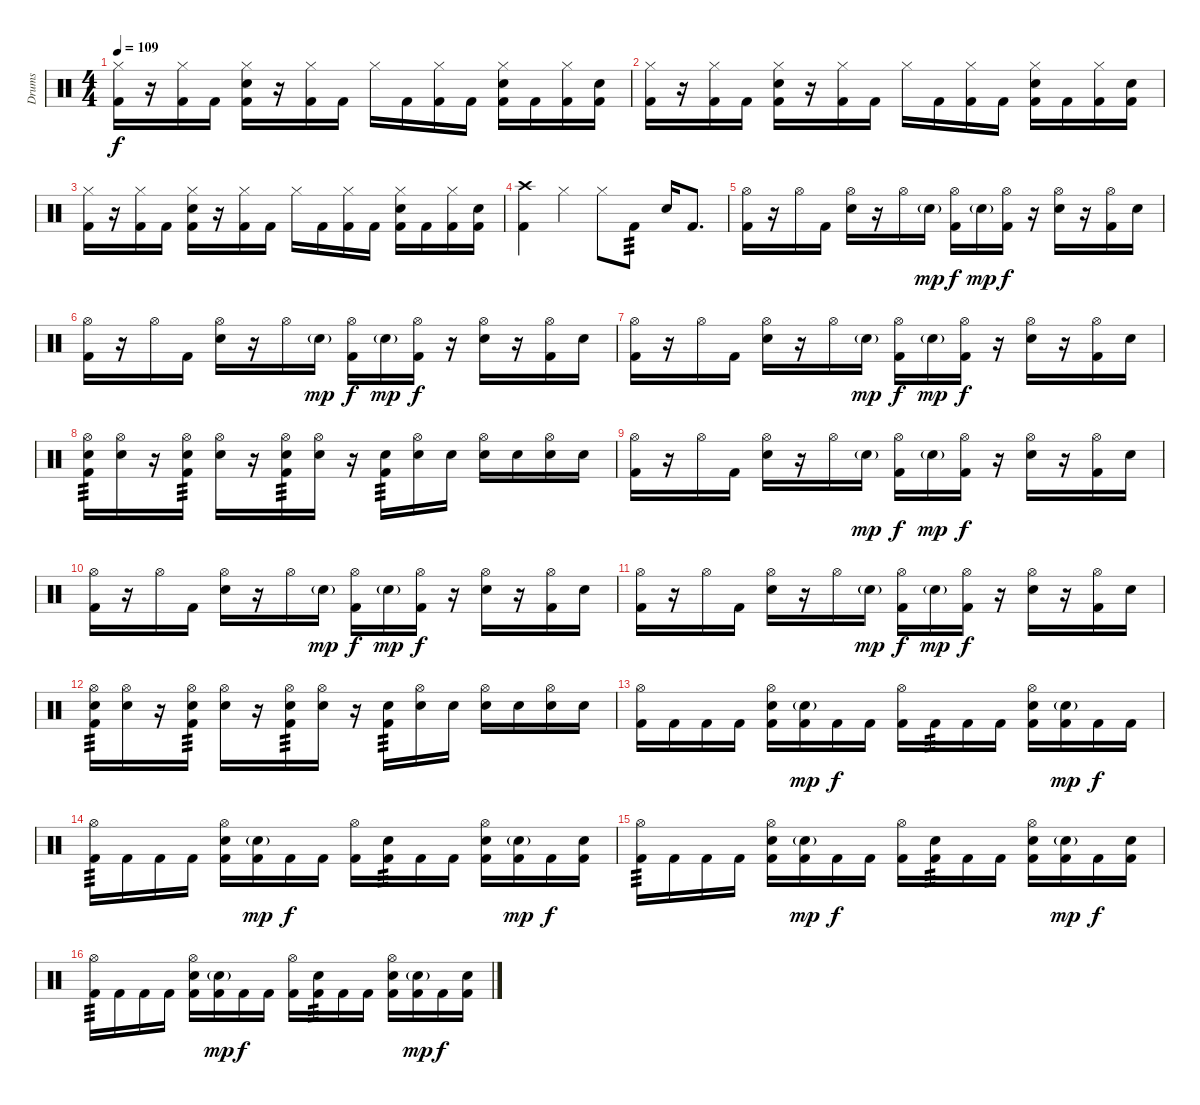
\track ("Drums" "Drums") {instrument percussion}
\staff {score}
\articulation defaults
\ts (4 4)
\tempo 109
\clef neutral
\ks c
("Hi-Hat (closed)" "Kick (hit) 2").16{dy f} r.16 ("Hi-Hat (closed)" "Kick (hit) 2").16 "Kick (hit) 2".16 ("Hi-Hat (closed)" "Electric Snare (hit)" "Kick (hit) 2").16 r.16 ("Hi-Hat (closed)" "Kick (hit) 2").16 "Kick (hit) 2".16 "Hi-Hat (closed)".16 "Kick (hit) 2".16 ("Hi-Hat (closed)" "Kick (hit) 2").16 "Kick (hit) 2".16 ("Hi-Hat (closed)" "Electric Snare (hit)" "Kick (hit) 2").16 "Kick (hit) 2".16 ("Hi-Hat (closed)" "Kick (hit) 2").16 ("Electric Snare (hit)" "Kick (hit) 2").16 |
("Hi-Hat (closed)" "Kick (hit) 2").16 r.16 ("Hi-Hat (closed)" "Kick (hit) 2").16 "Kick (hit) 2".16 ("Hi-Hat (closed)" "Electric Snare (hit)" "Kick (hit) 2").16 r.16 ("Hi-Hat (closed)" "Kick (hit) 2").16 "Kick (hit) 2".16 "Hi-Hat (closed)".16 "Kick (hit) 2".16 ("Hi-Hat (closed)" "Kick (hit) 2").16 "Kick (hit) 2".16 ("Hi-Hat (closed)" "Electric Snare (hit)" "Kick (hit) 2").16 "Kick (hit) 2".16 ("Hi-Hat (closed)" "Kick (hit) 2").16 ("Electric Snare (hit)" "Kick (hit) 2").16 |
("Hi-Hat (closed)" "Kick (hit) 2").16 r.16 ("Hi-Hat (closed)" "Kick (hit) 2").16 "Kick (hit) 2".16 ("Hi-Hat (closed)" "Electric Snare (hit)" "Kick (hit) 2").16 r.16 ("Hi-Hat (closed)" "Kick (hit) 2").16 "Kick (hit) 2".16 "Hi-Hat (closed)".16 "Kick (hit) 2".16 ("Hi-Hat (closed)" "Kick (hit) 2").16 "Kick (hit) 2".16 ("Hi-Hat (closed)" "Electric Snare (hit)" "Kick (hit) 2").16 "Kick (hit) 2".16 ("Hi-Hat (closed)" "Kick (hit) 2").16 ("Electric Snare (hit)" "Kick (hit) 2").16 |
("Crash high (hit)" "Kick (hit) 2").4 "Hi-Hat (closed)".4 "Hi-Hat (closed)".8 "Kick (hit) 2".8{tp 3} "Electric Snare (hit)".16 "Kick (hit) 2".8{d} |
("Hi-Hat (open)" "Kick (hit) 2").16 r.16 "Hi-Hat (open)".16 "Kick (hit) 2".16 ("Hi-Hat (open)" "Electric Snare (hit)").16 r.16 "Hi-Hat (open)".16 "Electric Snare (hit)"{g}.16{dy mp} ("Hi-Hat (open)" "Kick (hit) 2").16{dy f} "Electric Snare (hit)"{g}.16{dy mp} ("Hi-Hat (open)" "Kick (hit) 2").16{dy f} r.16 ("Hi-Hat (open)" "Electric Snare (hit)").16 r.16 ("Hi-Hat (open)" "Kick (hit) 2").16 "Electric Snare (hit)".16 |
("Hi-Hat (open)" "Kick (hit) 2").16 r.16 "Hi-Hat (open)".16 "Kick (hit) 2".16 ("Hi-Hat (open)" "Electric Snare (hit)").16 r.16 "Hi-Hat (open)".16 "Electric Snare (hit)"{g}.16{dy mp} ("Hi-Hat (open)" "Kick (hit) 2").16{dy f} "Electric Snare (hit)"{g}.16{dy mp} ("Hi-Hat (open)" "Kick (hit) 2").16{dy f} r.16 ("Hi-Hat (open)" "Electric Snare (hit)").16 r.16 ("Hi-Hat (open)" "Kick (hit) 2").16 "Electric Snare (hit)".16 |
("Hi-Hat (open)" "Kick (hit) 2").16 r.16 "Hi-Hat (open)".16 "Kick (hit) 2".16 ("Hi-Hat (open)" "Electric Snare (hit)").16 r.16 "Hi-Hat (open)".16 "Electric Snare (hit)"{g}.16{dy mp} ("Hi-Hat (open)" "Kick (hit) 2").16{dy f} "Electric Snare (hit)"{g}.16{dy mp} ("Hi-Hat (open)" "Kick (hit) 2").16{dy f} r.16 ("Hi-Hat (open)" "Electric Snare (hit)").16 r.16 ("Hi-Hat (open)" "Kick (hit) 2").16 "Electric Snare (hit)".16 |
("Hi-Hat (open)" "Electric Snare (hit)" "Kick (hit) 2").16{tp 3} ("Hi-Hat (open)" "Electric Snare (hit)").16 r.16 ("Hi-Hat (open)" "Electric Snare (hit)" "Kick (hit) 2").16{tp 3} ("Hi-Hat (open)" "Electric Snare (hit)").16 r.16 ("Hi-Hat (open)" "Electric Snare (hit)" "Kick (hit) 2").16{tp 3} ("Hi-Hat (open)" "Electric Snare (hit)").16 r.16 ("Electric Snare (hit)" "Kick (hit) 2").16{tp 3} ("Hi-Hat (open)" "Electric Snare (hit)").16 "Electric Snare (hit)".16 ("Hi-Hat (open)" "Electric Snare (hit)").16 "Electric Snare (hit)".16 ("Hi-Hat (open)" "Electric Snare (hit)").16 "Electric Snare (hit)".16 |
("Hi-Hat (open)" "Kick (hit) 2").16 r.16 "Hi-Hat (open)".16 "Kick (hit) 2".16 ("Hi-Hat (open)" "Electric Snare (hit)").16 r.16 "Hi-Hat (open)".16 "Electric Snare (hit)"{g}.16{dy mp} ("Hi-Hat (open)" "Kick (hit) 2").16{dy f} "Electric Snare (hit)"{g}.16{dy mp} ("Hi-Hat (open)" "Kick (hit) 2").16{dy f} r.16 ("Hi-Hat (open)" "Electric Snare (hit)").16 r.16 ("Hi-Hat (open)" "Kick (hit) 2").16 "Electric Snare (hit)".16 |
("Hi-Hat (open)" "Kick (hit) 2").16 r.16 "Hi-Hat (open)".16 "Kick (hit) 2".16 ("Hi-Hat (open)" "Electric Snare (hit)").16 r.16 "Hi-Hat (open)".16 "Electric Snare (hit)"{g}.16{dy mp} ("Hi-Hat (open)" "Kick (hit) 2").16{dy f} "Electric Snare (hit)"{g}.16{dy mp} ("Hi-Hat (open)" "Kick (hit) 2").16{dy f} r.16 ("Hi-Hat (open)" "Electric Snare (hit)").16 r.16 ("Hi-Hat (open)" "Kick (hit) 2").16 "Electric Snare (hit)".16 |
("Hi-Hat (open)" "Kick (hit) 2").16 r.16 "Hi-Hat (open)".16 "Kick (hit) 2".16 ("Hi-Hat (open)" "Electric Snare (hit)").16 r.16 "Hi-Hat (open)".16 "Electric Snare (hit)"{g}.16{dy mp} ("Hi-Hat (open)" "Kick (hit) 2").16{dy f} "Electric Snare (hit)"{g}.16{dy mp} ("Hi-Hat (open)" "Kick (hit) 2").16{dy f} r.16 ("Hi-Hat (open)" "Electric Snare (hit)").16 r.16 ("Hi-Hat (open)" "Kick (hit) 2").16 "Electric Snare (hit)".16 |
("Hi-Hat (open)" "Electric Snare (hit)" "Kick (hit) 2").16{tp 3} ("Hi-Hat (open)" "Electric Snare (hit)").16 r.16 ("Hi-Hat (open)" "Electric Snare (hit)" "Kick (hit) 2").16{tp 3} ("Hi-Hat (open)" "Electric Snare (hit)").16 r.16 ("Hi-Hat (open)" "Electric Snare (hit)" "Kick (hit) 2").16{tp 3} ("Hi-Hat (open)" "Electric Snare (hit)").16 r.16 ("Electric Snare (hit)" "Kick (hit) 2").16{tp 3} ("Hi-Hat (open)" "Electric Snare (hit)").16 "Electric Snare (hit)".16 ("Hi-Hat (open)" "Electric Snare (hit)").16 "Electric Snare (hit)".16 ("Hi-Hat (open)" "Electric Snare (hit)").16 "Electric Snare (hit)".16 |
("Hi-Hat (open)" "Kick (hit) 2").16 "Kick (hit) 2".16 "Kick (hit) 2".16 "Kick (hit) 2".16 ("Hi-Hat (open)" "Electric Snare (hit)" "Kick (hit) 2").16 ("Electric Snare (hit)"{g} "Kick (hit) 2").16{dy mp} "Kick (hit) 2".16{dy f} "Kick (hit) 2".16 ("Hi-Hat (open)" "Kick (hit) 2").16 "Kick (hit) 2".16{tp 3} "Kick (hit) 2".16 "Kick (hit) 2".16 ("Hi-Hat (open)" "Electric Snare (hit)" "Kick (hit) 2").16 ("Electric Snare (hit)"{g} "Kick (hit) 2").16{dy mp} "Kick (hit) 2".16{dy f} "Kick (hit) 2".16 |
("Hi-Hat (open)" "Kick (hit) 2").16{tp 3} "Kick (hit) 2".16 "Kick (hit) 2".16 "Kick (hit) 2".16 ("Hi-Hat (open)" "Electric Snare (hit)" "Kick (hit) 2").16 ("Electric Snare (hit)"{g} "Kick (hit) 2").16{dy mp} "Kick (hit) 2".16{dy f} "Kick (hit) 2".16 ("Hi-Hat (open)" "Kick (hit) 2").16 ("Electric Snare (hit)" "Kick (hit) 2").16{tp 3} "Kick (hit) 2".16 "Kick (hit) 2".16 ("Hi-Hat (open)" "Electric Snare (hit)" "Kick (hit) 2").16 ("Electric Snare (hit)"{g} "Kick (hit) 2").16{dy mp} "Kick (hit) 2".16{dy f} ("Electric Snare (hit)" "Kick (hit) 2").16 |
("Hi-Hat (open)" "Kick (hit) 2").16{tp 3} "Kick (hit) 2".16 "Kick (hit) 2".16 "Kick (hit) 2".16 ("Hi-Hat (open)" "Electric Snare (hit)" "Kick (hit) 2").16 ("Electric Snare (hit)"{g} "Kick (hit) 2").16{dy mp} "Kick (hit) 2".16{dy f} "Kick (hit) 2".16 ("Hi-Hat (open)" "Kick (hit) 2").16 ("Electric Snare (hit)" "Kick (hit) 2").16{tp 3} "Kick (hit) 2".16 "Kick (hit) 2".16 ("Hi-Hat (open)" "Electric Snare (hit)" "Kick (hit) 2").16 ("Electric Snare (hit)"{g} "Kick (hit) 2").16{dy mp} "Kick (hit) 2".16{dy f} ("Electric Snare (hit)" "Kick (hit) 2").16 |
("Hi-Hat (open)" "Kick (hit) 2").16{tp 3} "Kick (hit) 2".16 "Kick (hit) 2".16 "Kick (hit) 2".16 ("Hi-Hat (open)" "Electric Snare (hit)" "Kick (hit) 2").16 ("Electric Snare (hit)"{g} "Kick (hit) 2").16{dy mp} "Kick (hit) 2".16{dy f} "Kick (hit) 2".16 ("Hi-Hat (open)" "Kick (hit) 2").16 ("Electric Snare (hit)" "Kick (hit) 2").16{tp 3} "Kick (hit) 2".16 "Kick (hit) 2".16 ("Hi-Hat (open)" "Electric Snare (hit)" "Kick (hit) 2").16 ("Electric Snare (hit)"{g} "Kick (hit) 2").16{dy mp} "Kick (hit) 2".16{dy f} ("Electric Snare (hit)" "Kick (hit) 2").16
